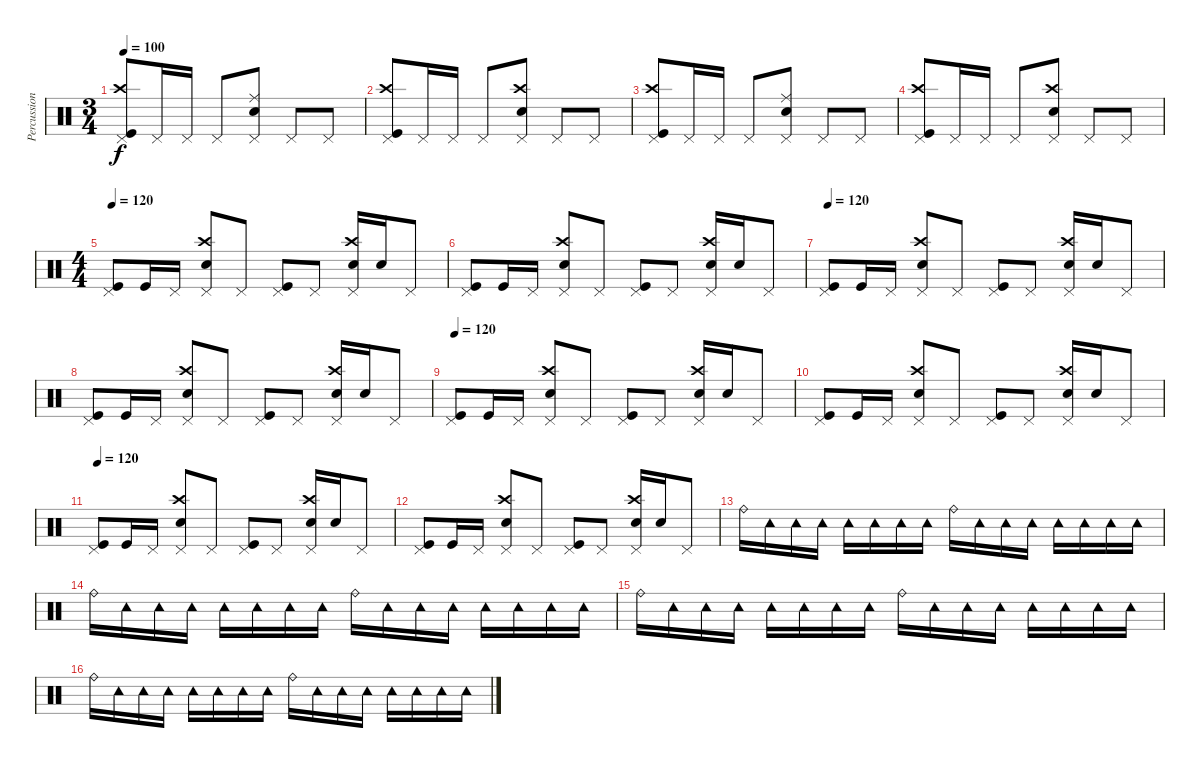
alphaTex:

\track ("Percussion" "Percussion") {instrument percussion}
\staff {score}
\articulation defaults
\ts (3 4)
\tempo 100
\clef neutral
\ks c
("Pedal Hi-Hat (hit)" "Crash high (hit)" "Kick (hit)").8{dy f} "Pedal Hi-Hat (hit)".16 "Pedal Hi-Hat (hit)".16 "Pedal Hi-Hat (hit)".8 ("Pedal Hi-Hat (hit)" "Electric Snare (hit)" "Ride (middle)").8 "Pedal Hi-Hat (hit)".8 "Pedal Hi-Hat (hit)".8 |
("Pedal Hi-Hat (hit)" "Crash high (hit)" "Kick (hit)").8 "Pedal Hi-Hat (hit)".16 "Pedal Hi-Hat (hit)".16 "Pedal Hi-Hat (hit)".8 ("Pedal Hi-Hat (hit)" "Electric Snare (hit)" "Crash high (hit)").8 "Pedal Hi-Hat (hit)".8 "Pedal Hi-Hat (hit)".8 |
("Pedal Hi-Hat (hit)" "Crash high (hit)" "Kick (hit)").8 "Pedal Hi-Hat (hit)".16 "Pedal Hi-Hat (hit)".16 "Pedal Hi-Hat (hit)".8 ("Pedal Hi-Hat (hit)" "Electric Snare (hit)" "Ride (middle)").8 "Pedal Hi-Hat (hit)".8 "Pedal Hi-Hat (hit)".8 |
("Pedal Hi-Hat (hit)" "Crash high (hit)" "Kick (hit)").8 "Pedal Hi-Hat (hit)".16 "Pedal Hi-Hat (hit)".16 "Pedal Hi-Hat (hit)".8 ("Pedal Hi-Hat (hit)" "Electric Snare (hit)" "Crash high (hit)").8 "Pedal Hi-Hat (hit)".8 "Pedal Hi-Hat (hit)".8 |
\ts (4 4)
\tempo 120
("Pedal Hi-Hat (hit)" "Kick (hit)").8 "Kick (hit)".16 "Pedal Hi-Hat (hit)".16 ("Crash high (hit)" "Pedal Hi-Hat (hit)" "Electric Snare (hit)").8 "Pedal Hi-Hat (hit)".8 ("Pedal Hi-Hat (hit)" "Kick (hit)").8 "Pedal Hi-Hat (hit)".8 ("Crash high (hit)" "Pedal Hi-Hat (hit)" "Electric Snare (hit)").16 "Electric Snare (hit)".16 "Pedal Hi-Hat (hit)".8 |
("Pedal Hi-Hat (hit)" "Kick (hit)").8 "Kick (hit)".16 "Pedal Hi-Hat (hit)".16 ("Crash high (hit)" "Pedal Hi-Hat (hit)" "Electric Snare (hit)").8 "Pedal Hi-Hat (hit)".8 ("Pedal Hi-Hat (hit)" "Kick (hit)").8 "Pedal Hi-Hat (hit)".8 ("Crash high (hit)" "Pedal Hi-Hat (hit)" "Electric Snare (hit)").16 "Electric Snare (hit)".16 "Pedal Hi-Hat (hit)".8 |
\tempo 120
("Pedal Hi-Hat (hit)" "Kick (hit)").8 "Kick (hit)".16 "Pedal Hi-Hat (hit)".16 ("Crash high (hit)" "Pedal Hi-Hat (hit)" "Electric Snare (hit)").8 "Pedal Hi-Hat (hit)".8 ("Pedal Hi-Hat (hit)" "Kick (hit)").8 "Pedal Hi-Hat (hit)".8 ("Crash high (hit)" "Pedal Hi-Hat (hit)" "Electric Snare (hit)").16 "Electric Snare (hit)".16 "Pedal Hi-Hat (hit)".8 |
("Pedal Hi-Hat (hit)" "Kick (hit)").8 "Kick (hit)".16 "Pedal Hi-Hat (hit)".16 ("Crash high (hit)" "Pedal Hi-Hat (hit)" "Electric Snare (hit)").8 "Pedal Hi-Hat (hit)".8 ("Pedal Hi-Hat (hit)" "Kick (hit)").8 "Pedal Hi-Hat (hit)".8 ("Crash high (hit)" "Pedal Hi-Hat (hit)" "Electric Snare (hit)").16 "Electric Snare (hit)".16 "Pedal Hi-Hat (hit)".8 |
\tempo 120
("Pedal Hi-Hat (hit)" "Kick (hit)").8 "Kick (hit)".16 "Pedal Hi-Hat (hit)".16 ("Crash high (hit)" "Pedal Hi-Hat (hit)" "Electric Snare (hit)").8 "Pedal Hi-Hat (hit)".8 ("Pedal Hi-Hat (hit)" "Kick (hit)").8 "Pedal Hi-Hat (hit)".8 ("Crash high (hit)" "Pedal Hi-Hat (hit)" "Electric Snare (hit)").16 "Electric Snare (hit)".16 "Pedal Hi-Hat (hit)".8 |
("Pedal Hi-Hat (hit)" "Kick (hit)").8 "Kick (hit)".16 "Pedal Hi-Hat (hit)".16 ("Crash high (hit)" "Pedal Hi-Hat (hit)" "Electric Snare (hit)").8 "Pedal Hi-Hat (hit)".8 ("Pedal Hi-Hat (hit)" "Kick (hit)").8 "Pedal Hi-Hat (hit)".8 ("Crash high (hit)" "Pedal Hi-Hat (hit)" "Electric Snare (hit)").16 "Electric Snare (hit)".16 "Pedal Hi-Hat (hit)".8 |
\tempo 120
("Pedal Hi-Hat (hit)" "Kick (hit)").8 "Kick (hit)".16 "Pedal Hi-Hat (hit)".16 ("Crash high (hit)" "Pedal Hi-Hat (hit)" "Electric Snare (hit)").8 "Pedal Hi-Hat (hit)".8 ("Pedal Hi-Hat (hit)" "Kick (hit)").8 "Pedal Hi-Hat (hit)".8 ("Crash high (hit)" "Pedal Hi-Hat (hit)" "Electric Snare (hit)").16 "Electric Snare (hit)".16 "Pedal Hi-Hat (hit)".8 |
("Pedal Hi-Hat (hit)" "Kick (hit)").8 "Kick (hit)".16 "Pedal Hi-Hat (hit)".16 ("Crash high (hit)" "Pedal Hi-Hat (hit)" "Electric Snare (hit)").8 "Pedal Hi-Hat (hit)".8 ("Pedal Hi-Hat (hit)" "Kick (hit)").8 "Pedal Hi-Hat (hit)".8 ("Crash high (hit)" "Pedal Hi-Hat (hit)" "Electric Snare (hit)").16 "Electric Snare (hit)".16 "Pedal Hi-Hat (hit)".8 |
"Ride (bell)".16 "Tambourine (hit)".16 "Tambourine (hit)".16 "Tambourine (hit)".16 "Tambourine (hit)".16 "Tambourine (hit)".16 "Tambourine (hit)".16 "Tambourine (hit)".16 "Ride (bell)".16 "Tambourine (hit)".16 "Tambourine (hit)".16 "Tambourine (hit)".16 "Tambourine (hit)".16 "Tambourine (hit)".16 "Tambourine (hit)".16 "Tambourine (hit)".16 |
"Ride (bell)".16 "Tambourine (hit)".16 "Tambourine (hit)".16 "Tambourine (hit)".16 "Tambourine (hit)".16 "Tambourine (hit)".16 "Tambourine (hit)".16 "Tambourine (hit)".16 "Ride (bell)".16 "Tambourine (hit)".16 "Tambourine (hit)".16 "Tambourine (hit)".16 "Tambourine (hit)".16 "Tambourine (hit)".16 "Tambourine (hit)".16 "Tambourine (hit)".16 |
"Ride (bell)".16 "Tambourine (hit)".16 "Tambourine (hit)".16 "Tambourine (hit)".16 "Tambourine (hit)".16 "Tambourine (hit)".16 "Tambourine (hit)".16 "Tambourine (hit)".16 "Ride (bell)".16 "Tambourine (hit)".16 "Tambourine (hit)".16 "Tambourine (hit)".16 "Tambourine (hit)".16 "Tambourine (hit)".16 "Tambourine (hit)".16 "Tambourine (hit)".16 |
"Ride (bell)".16 "Tambourine (hit)".16 "Tambourine (hit)".16 "Tambourine (hit)".16 "Tambourine (hit)".16 "Tambourine (hit)".16 "Tambourine (hit)".16 "Tambourine (hit)".16 "Ride (bell)".16 "Tambourine (hit)".16 "Tambourine (hit)".16 "Tambourine (hit)".16 "Tambourine (hit)".16 "Tambourine (hit)".16 "Tambourine (hit)".16 "Tambourine (hit)".16
